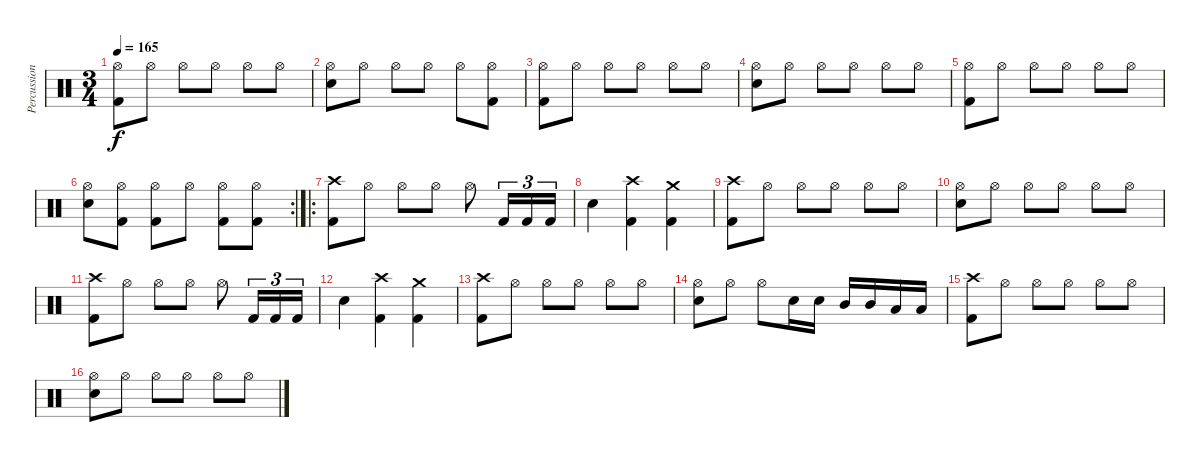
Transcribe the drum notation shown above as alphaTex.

\track ("Percussion" "Percussion") {instrument percussion}
\staff {score}
\articulation defaults
\ts (3 4)
\tempo 165
\clef neutral
\ks c
("Hi-Hat (open)" "Kick (hit) 2").8{dy f} "Hi-Hat (open)".8 "Hi-Hat (open)".8 "Hi-Hat (open)".8 "Hi-Hat (open)".8 "Hi-Hat (open)".8 |
("Hi-Hat (open)" "Electric Snare (hit)").8 "Hi-Hat (open)".8 "Hi-Hat (open)".8 "Hi-Hat (open)".8 "Hi-Hat (open)".8 ("Hi-Hat (open)" "Kick (hit) 2").8 |
("Hi-Hat (open)" "Kick (hit) 2").8 "Hi-Hat (open)".8 "Hi-Hat (open)".8 "Hi-Hat (open)".8 "Hi-Hat (open)".8 "Hi-Hat (open)".8 |
("Hi-Hat (open)" "Electric Snare (hit)").8 "Hi-Hat (open)".8 "Hi-Hat (open)".8 "Hi-Hat (open)".8 "Hi-Hat (open)".8 "Hi-Hat (open)".8 |
("Hi-Hat (open)" "Kick (hit) 2").8 "Hi-Hat (open)".8 "Hi-Hat (open)".8 "Hi-Hat (open)".8 "Hi-Hat (open)".8 "Hi-Hat (open)".8 |
\rc 2
("Hi-Hat (open)" "Electric Snare (hit)").8 ("Hi-Hat (open)" "Kick (hit) 2").8 ("Hi-Hat (open)" "Kick (hit) 2").8 "Hi-Hat (open)".8 ("Hi-Hat (open)" "Kick (hit) 2").8 ("Hi-Hat (open)" "Kick (hit) 2").8 |
\ro
("Crash high (hit)" "Kick (hit) 2").8 "Hi-Hat (open)".8 "Hi-Hat (open)".8 "Hi-Hat (open)".8 "Hi-Hat (open)".8 "Kick (hit) 2".16{tu (3 2)} "Kick (hit) 2".16{tu (3 2)} "Kick (hit) 2".16{tu (3 2)} |
"Electric Snare (hit)".4 ("Crash high (hit)" "Kick (hit) 2").4 ("Crash medium (hit)" "Kick (hit) 2").4 |
("Crash high (hit)" "Kick (hit) 2").8 "Hi-Hat (open)".8 "Hi-Hat (open)".8 "Hi-Hat (open)".8 "Hi-Hat (open)".8 "Hi-Hat (open)".8 |
("Hi-Hat (open)" "Electric Snare (hit)").8 "Hi-Hat (open)".8 "Hi-Hat (open)".8 "Hi-Hat (open)".8 "Hi-Hat (open)".8 "Hi-Hat (open)".8 |
("Crash high (hit)" "Kick (hit) 2").8 "Hi-Hat (open)".8 "Hi-Hat (open)".8 "Hi-Hat (open)".8 "Hi-Hat (open)".8 "Kick (hit) 2".16{tu (3 2)} "Kick (hit) 2".16{tu (3 2)} "Kick (hit) 2".16{tu (3 2)} |
"Electric Snare (hit)".4 ("Crash high (hit)" "Kick (hit) 2").4 ("Crash medium (hit)" "Kick (hit) 2").4 |
("Crash high (hit)" "Kick (hit) 2").8 "Hi-Hat (open)".8 "Hi-Hat (open)".8 "Hi-Hat (open)".8 "Hi-Hat (open)".8 "Hi-Hat (open)".8 |
("Hi-Hat (open)" "Electric Snare (hit)").8 "Hi-Hat (open)".8 "Hi-Hat (open)".8 "Electric Snare (hit)".16 "Electric Snare (hit)".16 "Mid Tom (hit)".16 "Mid Tom (hit)".16 "Low Tom (hit)".16 "Low Tom (hit)".16 |
("Crash high (hit)" "Kick (hit) 2").8 "Hi-Hat (open)".8 "Hi-Hat (open)".8 "Hi-Hat (open)".8 "Hi-Hat (open)".8 "Hi-Hat (open)".8 |
("Hi-Hat (open)" "Electric Snare (hit)").8 "Hi-Hat (open)".8 "Hi-Hat (open)".8 "Hi-Hat (open)".8 "Hi-Hat (open)".8 "Hi-Hat (open)".8
